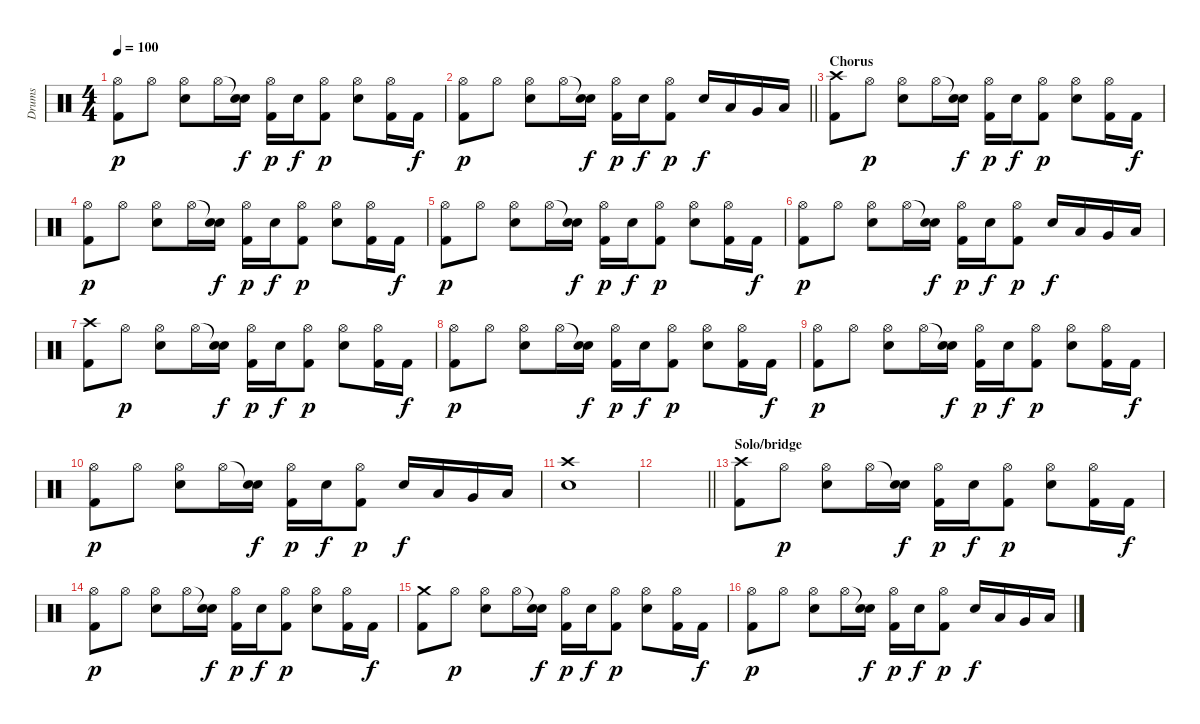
\track ("Drums" "Drums") {instrument percussion}
\staff {score}
\articulation defaults
\ts (4 4)
\tempo 100
\clef neutral
\ks c
("Hi-Hat (open)" "Kick (hit) 2").8{dy p} "Hi-Hat (open)".8 ("Hi-Hat (open)" "Electric Snare (hit)").8 "Hi-Hat (open)".16 ("Snare (hit)"{t} "Electric Snare (hit)").16{dy f} ("Hi-Hat (open)" "Kick (hit) 2").16{dy p} "Electric Snare (hit)".16{dy f} ("Hi-Hat (open)" "Kick (hit) 2").8{dy p} ("Hi-Hat (open)" "Electric Snare (hit)").8 ("Hi-Hat (open)" "Kick (hit) 2").16 "Kick (hit) 2".16{dy f} |
\barLineRight lightlight
("Hi-Hat (open)" "Kick (hit) 2").8{dy p} "Hi-Hat (open)".8 ("Hi-Hat (open)" "Electric Snare (hit)").8 "Hi-Hat (open)".16 ("Snare (hit)"{t} "Electric Snare (hit)").16{dy f} ("Hi-Hat (open)" "Kick (hit) 2").16{dy p} "Electric Snare (hit)".16{dy f} ("Hi-Hat (open)" "Kick (hit) 2").8{dy p} "Electric Snare (hit)".16{dy f} "Low Tom (hit)".16 "Very Low Tom (hit)".16 "Low Floor Tom (hit)".16 |
\section ("" "Chorus")
("Crash high (hit)" "Kick (hit) 2").8 "Hi-Hat (open)".8{dy p} ("Hi-Hat (open)" "Electric Snare (hit)").8 "Hi-Hat (open)".16 ("Snare (hit)"{t} "Electric Snare (hit)").16{dy f} ("Hi-Hat (open)" "Kick (hit) 2").16{dy p} "Electric Snare (hit)".16{dy f} ("Hi-Hat (open)" "Kick (hit) 2").8{dy p} ("Hi-Hat (open)" "Electric Snare (hit)").8 ("Hi-Hat (open)" "Kick (hit) 2").16 "Kick (hit) 2".16{dy f} |
("Hi-Hat (open)" "Kick (hit) 2").8{dy p} "Hi-Hat (open)".8 ("Hi-Hat (open)" "Electric Snare (hit)").8 "Hi-Hat (open)".16 ("Snare (hit)"{t} "Electric Snare (hit)").16{dy f} ("Hi-Hat (open)" "Kick (hit) 2").16{dy p} "Electric Snare (hit)".16{dy f} ("Hi-Hat (open)" "Kick (hit) 2").8{dy p} ("Hi-Hat (open)" "Electric Snare (hit)").8 ("Hi-Hat (open)" "Kick (hit) 2").16 "Kick (hit) 2".16{dy f} |
("Hi-Hat (open)" "Kick (hit) 2").8{dy p} "Hi-Hat (open)".8 ("Hi-Hat (open)" "Electric Snare (hit)").8 "Hi-Hat (open)".16 ("Snare (hit)"{t} "Electric Snare (hit)").16{dy f} ("Hi-Hat (open)" "Kick (hit) 2").16{dy p} "Electric Snare (hit)".16{dy f} ("Hi-Hat (open)" "Kick (hit) 2").8{dy p} ("Hi-Hat (open)" "Electric Snare (hit)").8 ("Hi-Hat (open)" "Kick (hit) 2").16 "Kick (hit) 2".16{dy f} |
("Hi-Hat (open)" "Kick (hit) 2").8{dy p} "Hi-Hat (open)".8 ("Hi-Hat (open)" "Electric Snare (hit)").8 "Hi-Hat (open)".16 ("Snare (hit)"{t} "Electric Snare (hit)").16{dy f} ("Hi-Hat (open)" "Kick (hit) 2").16{dy p} "Electric Snare (hit)".16{dy f} ("Hi-Hat (open)" "Kick (hit) 2").8{dy p} "Electric Snare (hit)".16{dy f} "Low Tom (hit)".16 "Very Low Tom (hit)".16 "Low Floor Tom (hit)".16 |
("Crash high (hit)" "Kick (hit) 2").8 "Hi-Hat (open)".8{dy p} ("Hi-Hat (open)" "Electric Snare (hit)").8 "Hi-Hat (open)".16 ("Snare (hit)"{t} "Electric Snare (hit)").16{dy f} ("Hi-Hat (open)" "Kick (hit) 2").16{dy p} "Electric Snare (hit)".16{dy f} ("Hi-Hat (open)" "Kick (hit) 2").8{dy p} ("Hi-Hat (open)" "Electric Snare (hit)").8 ("Hi-Hat (open)" "Kick (hit) 2").16 "Kick (hit) 2".16{dy f} |
("Hi-Hat (open)" "Kick (hit) 2").8{dy p} "Hi-Hat (open)".8 ("Hi-Hat (open)" "Electric Snare (hit)").8 "Hi-Hat (open)".16 ("Snare (hit)"{t} "Electric Snare (hit)").16{dy f} ("Hi-Hat (open)" "Kick (hit) 2").16{dy p} "Electric Snare (hit)".16{dy f} ("Hi-Hat (open)" "Kick (hit) 2").8{dy p} ("Hi-Hat (open)" "Electric Snare (hit)").8 ("Hi-Hat (open)" "Kick (hit) 2").16 "Kick (hit) 2".16{dy f} |
("Hi-Hat (open)" "Kick (hit) 2").8{dy p} "Hi-Hat (open)".8 ("Hi-Hat (open)" "Electric Snare (hit)").8 "Hi-Hat (open)".16 ("Snare (hit)"{t} "Electric Snare (hit)").16{dy f} ("Hi-Hat (open)" "Kick (hit) 2").16{dy p} "Electric Snare (hit)".16{dy f} ("Hi-Hat (open)" "Kick (hit) 2").8{dy p} ("Hi-Hat (open)" "Electric Snare (hit)").8 ("Hi-Hat (open)" "Kick (hit) 2").16 "Kick (hit) 2".16{dy f} |
("Hi-Hat (open)" "Kick (hit) 2").8{dy p} "Hi-Hat (open)".8 ("Hi-Hat (open)" "Electric Snare (hit)").8 "Hi-Hat (open)".16 ("Snare (hit)"{t} "Electric Snare (hit)").16{dy f} ("Hi-Hat (open)" "Kick (hit) 2").16{dy p} "Electric Snare (hit)".16{dy f} ("Hi-Hat (open)" "Kick (hit) 2").8{dy p} "Electric Snare (hit)".16{dy f} "Low Tom (hit)".16 "Very Low Tom (hit)".16 "Low Floor Tom (hit)".16 |
("Crash high (hit)" "Electric Snare (hit)").1 |
\barLineRight lightlight
|
\section ("" "Solo/bridge")
("Crash high (hit)" "Kick (hit) 2").8 "Hi-Hat (open)".8{dy p} ("Hi-Hat (open)" "Electric Snare (hit)").8 "Hi-Hat (open)".16 ("Snare (hit)"{t} "Electric Snare (hit)").16{dy f} ("Hi-Hat (open)" "Kick (hit) 2").16{dy p} "Electric Snare (hit)".16{dy f} ("Hi-Hat (open)" "Kick (hit) 2").8{dy p} ("Hi-Hat (open)" "Electric Snare (hit)").8 ("Hi-Hat (open)" "Kick (hit) 2").16 "Kick (hit) 2".16{dy f} |
("Hi-Hat (open)" "Kick (hit) 2").8{dy p} "Hi-Hat (open)".8 ("Hi-Hat (open)" "Electric Snare (hit)").8 "Hi-Hat (open)".16 ("Snare (hit)"{t} "Electric Snare (hit)").16{dy f} ("Hi-Hat (open)" "Kick (hit) 2").16{dy p} "Electric Snare (hit)".16{dy f} ("Hi-Hat (open)" "Kick (hit) 2").8{dy p} ("Hi-Hat (open)" "Electric Snare (hit)").8 ("Hi-Hat (open)" "Kick (hit) 2").16 "Kick (hit) 2".16{dy f} |
("Crash medium (hit)" "Kick (hit) 2").8 "Hi-Hat (open)".8{dy p} ("Hi-Hat (open)" "Electric Snare (hit)").8 "Hi-Hat (open)".16 ("Snare (hit)"{t} "Electric Snare (hit)").16{dy f} ("Hi-Hat (open)" "Kick (hit) 2").16{dy p} "Electric Snare (hit)".16{dy f} ("Hi-Hat (open)" "Kick (hit) 2").8{dy p} ("Hi-Hat (open)" "Electric Snare (hit)").8 ("Hi-Hat (open)" "Kick (hit) 2").16 "Kick (hit) 2".16{dy f} |
("Hi-Hat (open)" "Kick (hit) 2").8{dy p} "Hi-Hat (open)".8 ("Hi-Hat (open)" "Electric Snare (hit)").8 "Hi-Hat (open)".16 ("Snare (hit)"{t} "Electric Snare (hit)").16{dy f} ("Hi-Hat (open)" "Kick (hit) 2").16{dy p} "Electric Snare (hit)".16{dy f} ("Hi-Hat (open)" "Kick (hit) 2").8{dy p} "Electric Snare (hit)".16{dy f} "Low Tom (hit)".16 "Very Low Tom (hit)".16 "Low Floor Tom (hit)".16
